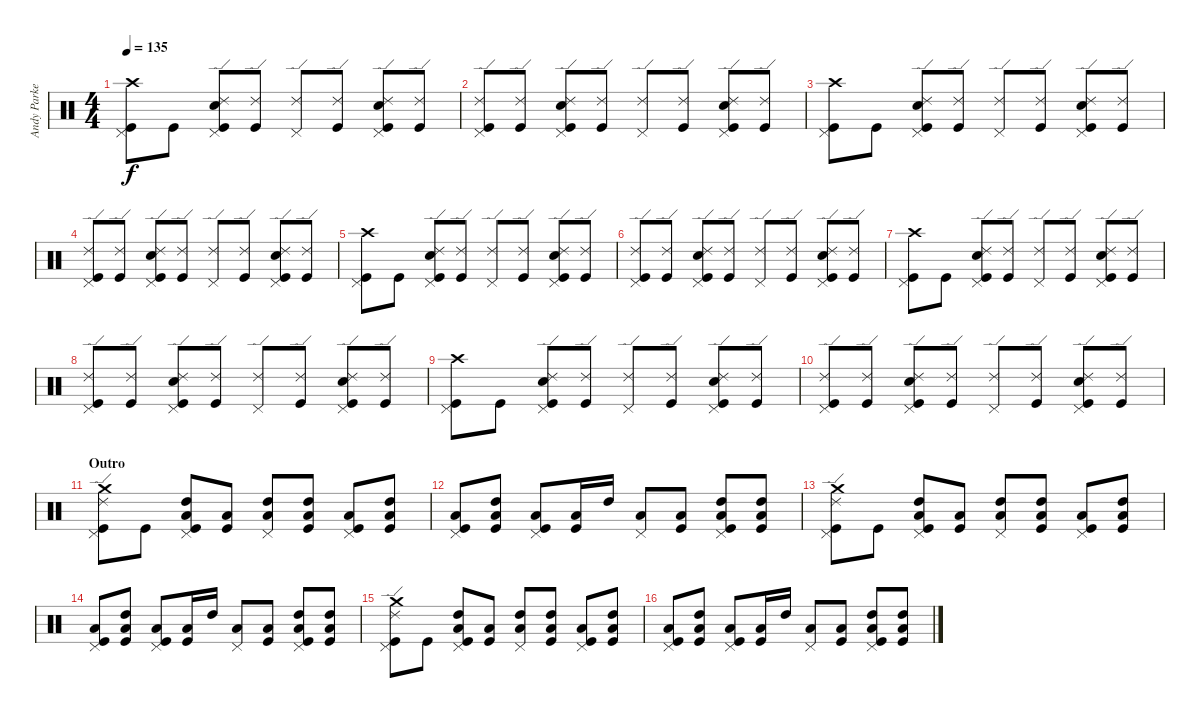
\track ("Andy Parker" "Andy Parke") {instrument percussion}
\staff {score}
\articulation defaults
\ts (4 4)
\tempo 135
\clef neutral
\ks c
("Crash high (hit)" "Pedal Hi-Hat (hit)" "Kick (hit)").8{dy f} "Kick (hit)".8 ("Ride (edge) 2" "Snare (hit) 2" "Pedal Hi-Hat (hit)" "Kick (hit)").8 ("Ride (edge) 2" "Kick (hit)").8 ("Ride (edge) 2" "Pedal Hi-Hat (hit)").8 ("Ride (edge) 2" "Kick (hit)").8 ("Ride (edge) 2" "Snare (hit) 2" "Pedal Hi-Hat (hit)" "Kick (hit)").8 ("Ride (edge) 2" "Kick (hit)").8 |
("Ride (edge) 2" "Pedal Hi-Hat (hit)" "Kick (hit)").8 ("Ride (edge) 2" "Kick (hit)").8 ("Ride (edge) 2" "Snare (hit) 2" "Pedal Hi-Hat (hit)" "Kick (hit)").8 ("Ride (edge) 2" "Kick (hit)").8 ("Ride (edge) 2" "Pedal Hi-Hat (hit)").8 ("Ride (edge) 2" "Kick (hit)").8 ("Ride (edge) 2" "Snare (hit) 2" "Pedal Hi-Hat (hit)" "Kick (hit)").8 ("Ride (edge) 2" "Kick (hit)").8 |
("Crash high (hit)" "Pedal Hi-Hat (hit)" "Kick (hit)").8 "Kick (hit)".8 ("Ride (edge) 2" "Snare (hit) 2" "Pedal Hi-Hat (hit)" "Kick (hit)").8 ("Ride (edge) 2" "Kick (hit)").8 ("Ride (edge) 2" "Pedal Hi-Hat (hit)").8 ("Ride (edge) 2" "Kick (hit)").8 ("Ride (edge) 2" "Snare (hit) 2" "Pedal Hi-Hat (hit)" "Kick (hit)").8 ("Ride (edge) 2" "Kick (hit)").8 |
("Ride (edge) 2" "Pedal Hi-Hat (hit)" "Kick (hit)").8 ("Ride (edge) 2" "Kick (hit)").8 ("Ride (edge) 2" "Snare (hit) 2" "Pedal Hi-Hat (hit)" "Kick (hit)").8 ("Ride (edge) 2" "Kick (hit)").8 ("Ride (edge) 2" "Pedal Hi-Hat (hit)").8 ("Ride (edge) 2" "Kick (hit)").8 ("Ride (edge) 2" "Snare (hit) 2" "Pedal Hi-Hat (hit)" "Kick (hit)").8 ("Ride (edge) 2" "Kick (hit)").8 |
("Crash high (hit)" "Pedal Hi-Hat (hit)" "Kick (hit)").8 "Kick (hit)".8 ("Ride (edge) 2" "Snare (hit) 2" "Pedal Hi-Hat (hit)" "Kick (hit)").8 ("Ride (edge) 2" "Kick (hit)").8 ("Ride (edge) 2" "Pedal Hi-Hat (hit)").8 ("Ride (edge) 2" "Kick (hit)").8 ("Ride (edge) 2" "Snare (hit) 2" "Pedal Hi-Hat (hit)" "Kick (hit)").8 ("Ride (edge) 2" "Kick (hit)").8 |
("Ride (edge) 2" "Pedal Hi-Hat (hit)" "Kick (hit)").8 ("Ride (edge) 2" "Kick (hit)").8 ("Ride (edge) 2" "Snare (hit) 2" "Pedal Hi-Hat (hit)" "Kick (hit)").8 ("Ride (edge) 2" "Kick (hit)").8 ("Ride (edge) 2" "Pedal Hi-Hat (hit)").8 ("Ride (edge) 2" "Kick (hit)").8 ("Ride (edge) 2" "Snare (hit) 2" "Pedal Hi-Hat (hit)" "Kick (hit)").8 ("Ride (edge) 2" "Kick (hit)").8 |
("Crash high (hit)" "Pedal Hi-Hat (hit)" "Kick (hit)").8 "Kick (hit)".8 ("Ride (edge) 2" "Snare (hit) 2" "Pedal Hi-Hat (hit)" "Kick (hit)").8 ("Ride (edge) 2" "Kick (hit)").8 ("Ride (edge) 2" "Pedal Hi-Hat (hit)").8 ("Ride (edge) 2" "Kick (hit)").8 ("Ride (edge) 2" "Snare (hit) 2" "Pedal Hi-Hat (hit)" "Kick (hit)").8 ("Ride (edge) 2" "Kick (hit)").8 |
("Ride (edge) 2" "Pedal Hi-Hat (hit)" "Kick (hit)").8 ("Ride (edge) 2" "Kick (hit)").8 ("Ride (edge) 2" "Snare (hit) 2" "Pedal Hi-Hat (hit)" "Kick (hit)").8 ("Ride (edge) 2" "Kick (hit)").8 ("Ride (edge) 2" "Pedal Hi-Hat (hit)").8 ("Ride (edge) 2" "Kick (hit)").8 ("Ride (edge) 2" "Snare (hit) 2" "Pedal Hi-Hat (hit)" "Kick (hit)").8 ("Ride (edge) 2" "Kick (hit)").8 |
("Crash high (hit)" "Pedal Hi-Hat (hit)" "Kick (hit)").8 "Kick (hit)".8 ("Ride (edge) 2" "Snare (hit) 2" "Pedal Hi-Hat (hit)" "Kick (hit)").8 ("Ride (edge) 2" "Kick (hit)").8 ("Ride (edge) 2" "Pedal Hi-Hat (hit)").8 ("Ride (edge) 2" "Kick (hit)").8 ("Ride (edge) 2" "Snare (hit) 2" "Pedal Hi-Hat (hit)" "Kick (hit)").8 ("Ride (edge) 2" "Kick (hit)").8 |
("Ride (edge) 2" "Pedal Hi-Hat (hit)" "Kick (hit)").8 ("Ride (edge) 2" "Kick (hit)").8 ("Ride (edge) 2" "Snare (hit) 2" "Pedal Hi-Hat (hit)" "Kick (hit)").8 ("Ride (edge) 2" "Kick (hit)").8 ("Ride (edge) 2" "Pedal Hi-Hat (hit)").8 ("Ride (edge) 2" "Kick (hit)").8 ("Ride (edge) 2" "Snare (hit) 2" "Pedal Hi-Hat (hit)" "Kick (hit)").8 ("Ride (edge) 2" "Kick (hit)").8 |
\section ("" "Outro")
("Crash medium (hit)" "Ride (edge) 2" "Pedal Hi-Hat (hit)" "Kick (hit)").8 "Kick (hit)".8 ("High Tom (hit)" "Low Floor Tom (hit)" "Pedal Hi-Hat (hit)" "Kick (hit)").8 ("Low Floor Tom (hit)" "Kick (hit)").8 ("High Tom (hit)" "Low Floor Tom (hit)" "Pedal Hi-Hat (hit)").8 ("High Tom (hit)" "Low Floor Tom (hit)" "Kick (hit)").8 ("Low Floor Tom (hit)" "Pedal Hi-Hat (hit)" "Kick (hit)").8 ("High Tom (hit)" "Low Floor Tom (hit)" "Kick (hit)").8 |
("Low Floor Tom (hit)" "Pedal Hi-Hat (hit)" "Kick (hit)").8 ("High Tom (hit)" "Low Floor Tom (hit)" "Kick (hit)").8 ("Low Floor Tom (hit)" "Pedal Hi-Hat (hit)" "Kick (hit)").8 ("Low Floor Tom (hit)" "Kick (hit)").16 "High Tom (hit)".16 ("Low Floor Tom (hit)" "Pedal Hi-Hat (hit)").8 ("Low Floor Tom (hit)" "Kick (hit)").8 ("High Tom (hit)" "Low Floor Tom (hit)" "Pedal Hi-Hat (hit)" "Kick (hit)").8 ("High Tom (hit)" "Low Floor Tom (hit)" "Kick (hit)").8 |
("Crash medium (hit)" "Ride (edge) 2" "Pedal Hi-Hat (hit)" "Kick (hit)").8 "Kick (hit)".8 ("High Tom (hit)" "Low Floor Tom (hit)" "Pedal Hi-Hat (hit)" "Kick (hit)").8 ("Low Floor Tom (hit)" "Kick (hit)").8 ("High Tom (hit)" "Low Floor Tom (hit)" "Pedal Hi-Hat (hit)").8 ("High Tom (hit)" "Low Floor Tom (hit)" "Kick (hit)").8 ("Low Floor Tom (hit)" "Pedal Hi-Hat (hit)" "Kick (hit)").8 ("High Tom (hit)" "Low Floor Tom (hit)" "Kick (hit)").8 |
("Low Floor Tom (hit)" "Pedal Hi-Hat (hit)" "Kick (hit)").8 ("High Tom (hit)" "Low Floor Tom (hit)" "Kick (hit)").8 ("Low Floor Tom (hit)" "Pedal Hi-Hat (hit)" "Kick (hit)").8 ("Low Floor Tom (hit)" "Kick (hit)").16 "High Tom (hit)".16 ("Low Floor Tom (hit)" "Pedal Hi-Hat (hit)").8 ("Low Floor Tom (hit)" "Kick (hit)").8 ("High Tom (hit)" "Low Floor Tom (hit)" "Pedal Hi-Hat (hit)" "Kick (hit)").8 ("High Tom (hit)" "Low Floor Tom (hit)" "Kick (hit)").8 |
("Crash medium (hit)" "Ride (edge) 2" "Pedal Hi-Hat (hit)" "Kick (hit)").8 "Kick (hit)".8 ("High Tom (hit)" "Low Floor Tom (hit)" "Pedal Hi-Hat (hit)" "Kick (hit)").8 ("Low Floor Tom (hit)" "Kick (hit)").8 ("High Tom (hit)" "Low Floor Tom (hit)" "Pedal Hi-Hat (hit)").8 ("High Tom (hit)" "Low Floor Tom (hit)" "Kick (hit)").8 ("Low Floor Tom (hit)" "Pedal Hi-Hat (hit)" "Kick (hit)").8 ("High Tom (hit)" "Low Floor Tom (hit)" "Kick (hit)").8 |
("Low Floor Tom (hit)" "Pedal Hi-Hat (hit)" "Kick (hit)").8 ("High Tom (hit)" "Low Floor Tom (hit)" "Kick (hit)").8 ("Low Floor Tom (hit)" "Pedal Hi-Hat (hit)" "Kick (hit)").8 ("Low Floor Tom (hit)" "Kick (hit)").16 "High Tom (hit)".16 ("Low Floor Tom (hit)" "Pedal Hi-Hat (hit)").8 ("Low Floor Tom (hit)" "Kick (hit)").8 ("High Tom (hit)" "Low Floor Tom (hit)" "Pedal Hi-Hat (hit)" "Kick (hit)").8 ("High Tom (hit)" "Low Floor Tom (hit)" "Kick (hit)").8
